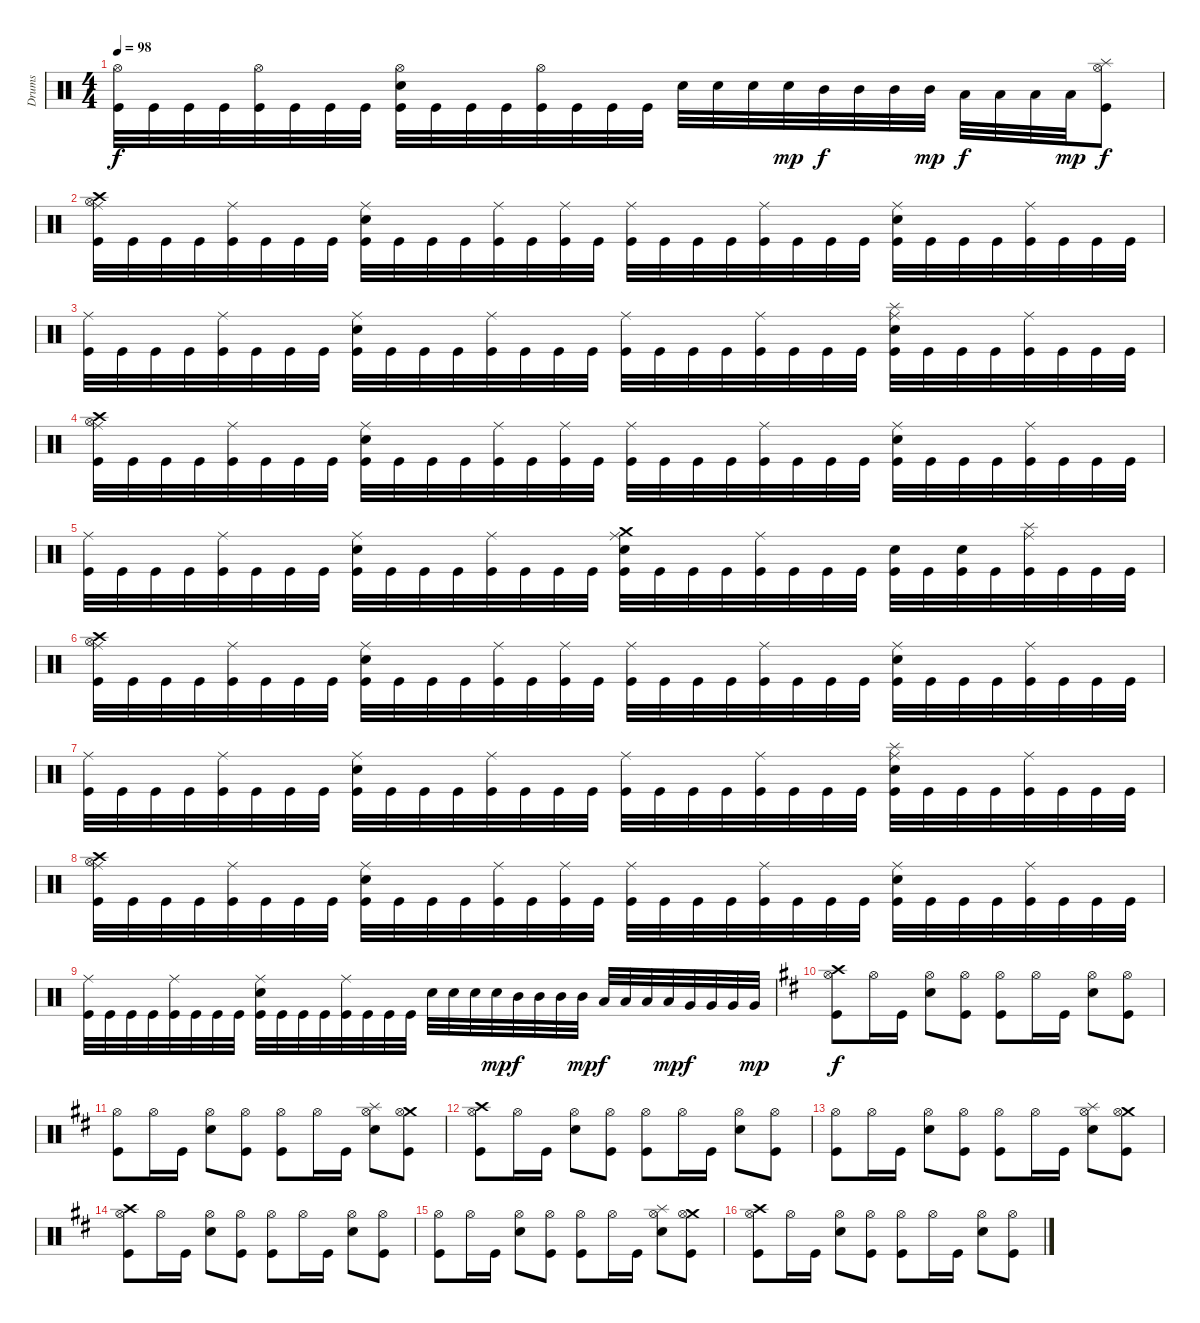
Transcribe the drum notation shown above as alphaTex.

\track ("Drums" "Drums") {instrument percussion}
\staff {score}
\articulation defaults
\ts (4 4)
\tempo 98
\clef neutral
\ks c
("Hi-Hat (open)" "Kick (hit)").32{dy f} "Kick (hit)".32 "Kick (hit)".32 "Kick (hit)".32 ("Hi-Hat (open)" "Kick (hit)").32 "Kick (hit)".32 "Kick (hit)".32 "Kick (hit)".32 ("Hi-Hat (open)" "Electric Snare (hit)" "Kick (hit)").32 "Kick (hit)".32 "Kick (hit)".32 "Kick (hit)".32 ("Hi-Hat (open)" "Kick (hit)").32 "Kick (hit)".32 "Kick (hit)".32 "Kick (hit)".32 "Electric Snare (hit)".32 "Electric Snare (hit)".32 "Electric Snare (hit)".32 "Electric Snare (hit)".32{dy mp} "Mid Tom (hit)".32{dy f} "Mid Tom (hit)".32 "Mid Tom (hit)".32 "Mid Tom (hit)".32{dy mp} "Low Tom (hit)".32{dy f} "Low Tom (hit)".32 "Low Tom (hit)".32 "Low Tom (hit)".32{dy mp} ("Splash (hit)" "Hi-Hat (open)" "Kick (hit)").8{dy f} |
("Crash high (hit)" "Hi-Hat (open)" "Ride (middle)" "Kick (hit)").32 "Kick (hit)".32 "Kick (hit)".32 "Kick (hit)".32 ("Ride (middle)" "Kick (hit)").32 "Kick (hit)".32 "Kick (hit)".32 "Kick (hit)".32 ("Ride (middle)" "Electric Snare (hit)" "Kick (hit)").32 "Kick (hit)".32 "Kick (hit)".32 "Kick (hit)".32 ("Ride (middle)" "Kick (hit)").32 "Kick (hit)".32 ("Ride (middle)" "Kick (hit)").32 "Kick (hit)".32 ("Ride (middle)" "Kick (hit)").32 "Kick (hit)".32 "Kick (hit)".32 "Kick (hit)".32 ("Ride (middle)" "Kick (hit)").32 "Kick (hit)".32 "Kick (hit)".32 "Kick (hit)".32 ("Ride (middle)" "Electric Snare (hit)" "Kick (hit)").32 "Kick (hit)".32 "Kick (hit)".32 "Kick (hit)".32 ("Ride (middle)" "Kick (hit)").32 "Kick (hit)".32 "Kick (hit)".32 "Kick (hit)".32 |
("Ride (middle)" "Kick (hit)").32 "Kick (hit)".32 "Kick (hit)".32 "Kick (hit)".32 ("Ride (middle)" "Kick (hit)").32 "Kick (hit)".32 "Kick (hit)".32 "Kick (hit)".32 ("Ride (middle)" "Electric Snare (hit)" "Kick (hit)").32 "Kick (hit)".32 "Kick (hit)".32 "Kick (hit)".32 ("Ride (middle)" "Kick (hit)").32 "Kick (hit)".32 "Kick (hit)".32 "Kick (hit)".32 ("Ride (middle)" "Kick (hit)").32 "Kick (hit)".32 "Kick (hit)".32 "Kick (hit)".32 ("Ride (middle)" "Kick (hit)").32 "Kick (hit)".32 "Kick (hit)".32 "Kick (hit)".32 ("Ride (middle)" "Splash (hit)" "Electric Snare (hit)" "Kick (hit)").32 "Kick (hit)".32 "Kick (hit)".32 "Kick (hit)".32 ("Ride (middle)" "Kick (hit)").32 "Kick (hit)".32 "Kick (hit)".32 "Kick (hit)".32 |
("Crash high (hit)" "Hi-Hat (open)" "Ride (middle)" "Kick (hit)").32 "Kick (hit)".32 "Kick (hit)".32 "Kick (hit)".32 ("Ride (middle)" "Kick (hit)").32 "Kick (hit)".32 "Kick (hit)".32 "Kick (hit)".32 ("Ride (middle)" "Electric Snare (hit)" "Kick (hit)").32 "Kick (hit)".32 "Kick (hit)".32 "Kick (hit)".32 ("Ride (middle)" "Kick (hit)").32 "Kick (hit)".32 ("Ride (middle)" "Kick (hit)").32 "Kick (hit)".32 ("Ride (middle)" "Kick (hit)").32 "Kick (hit)".32 "Kick (hit)".32 "Kick (hit)".32 ("Ride (middle)" "Kick (hit)").32 "Kick (hit)".32 "Kick (hit)".32 "Kick (hit)".32 ("Ride (middle)" "Electric Snare (hit)" "Kick (hit)").32 "Kick (hit)".32 "Kick (hit)".32 "Kick (hit)".32 ("Ride (middle)" "Kick (hit)").32 "Kick (hit)".32 "Kick (hit)".32 "Kick (hit)".32 |
("Ride (middle)" "Kick (hit)").32 "Kick (hit)".32 "Kick (hit)".32 "Kick (hit)".32 ("Ride (middle)" "Kick (hit)").32 "Kick (hit)".32 "Kick (hit)".32 "Kick (hit)".32 ("Ride (middle)" "Electric Snare (hit)" "Kick (hit)").32 "Kick (hit)".32 "Kick (hit)".32 "Kick (hit)".32 ("Ride (middle)" "Kick (hit)").32 "Kick (hit)".32 "Kick (hit)".32 "Kick (hit)".32 ("Crash medium (hit)" "Ride (middle)" "Electric Snare (hit)" "Kick (hit)").32 "Kick (hit)".32 "Kick (hit)".32 "Kick (hit)".32 ("Ride (middle)" "Kick (hit)").32 "Kick (hit)".32 "Kick (hit)".32 "Kick (hit)".32 ("Electric Snare (hit)" "Kick (hit)").32 "Kick (hit)".32 ("Electric Snare (hit)" "Kick (hit)").32 "Kick (hit)".32 ("Ride (middle)" "Splash (hit)" "Kick (hit)").32 "Kick (hit)".32 "Kick (hit)".32 "Kick (hit)".32 |
("Crash high (hit)" "Hi-Hat (open)" "Ride (middle)" "Kick (hit)").32 "Kick (hit)".32 "Kick (hit)".32 "Kick (hit)".32 ("Ride (middle)" "Kick (hit)").32 "Kick (hit)".32 "Kick (hit)".32 "Kick (hit)".32 ("Ride (middle)" "Electric Snare (hit)" "Kick (hit)").32 "Kick (hit)".32 "Kick (hit)".32 "Kick (hit)".32 ("Ride (middle)" "Kick (hit)").32 "Kick (hit)".32 ("Ride (middle)" "Kick (hit)").32 "Kick (hit)".32 ("Ride (middle)" "Kick (hit)").32 "Kick (hit)".32 "Kick (hit)".32 "Kick (hit)".32 ("Ride (middle)" "Kick (hit)").32 "Kick (hit)".32 "Kick (hit)".32 "Kick (hit)".32 ("Ride (middle)" "Electric Snare (hit)" "Kick (hit)").32 "Kick (hit)".32 "Kick (hit)".32 "Kick (hit)".32 ("Ride (middle)" "Kick (hit)").32 "Kick (hit)".32 "Kick (hit)".32 "Kick (hit)".32 |
("Ride (middle)" "Kick (hit)").32 "Kick (hit)".32 "Kick (hit)".32 "Kick (hit)".32 ("Ride (middle)" "Kick (hit)").32 "Kick (hit)".32 "Kick (hit)".32 "Kick (hit)".32 ("Ride (middle)" "Electric Snare (hit)" "Kick (hit)").32 "Kick (hit)".32 "Kick (hit)".32 "Kick (hit)".32 ("Ride (middle)" "Kick (hit)").32 "Kick (hit)".32 "Kick (hit)".32 "Kick (hit)".32 ("Ride (middle)" "Kick (hit)").32 "Kick (hit)".32 "Kick (hit)".32 "Kick (hit)".32 ("Ride (middle)" "Kick (hit)").32 "Kick (hit)".32 "Kick (hit)".32 "Kick (hit)".32 ("Ride (middle)" "Splash (hit)" "Electric Snare (hit)" "Kick (hit)").32 "Kick (hit)".32 "Kick (hit)".32 "Kick (hit)".32 ("Ride (middle)" "Kick (hit)").32 "Kick (hit)".32 "Kick (hit)".32 "Kick (hit)".32 |
("Crash high (hit)" "Hi-Hat (open)" "Ride (middle)" "Kick (hit)").32 "Kick (hit)".32 "Kick (hit)".32 "Kick (hit)".32 ("Ride (middle)" "Kick (hit)").32 "Kick (hit)".32 "Kick (hit)".32 "Kick (hit)".32 ("Ride (middle)" "Electric Snare (hit)" "Kick (hit)").32 "Kick (hit)".32 "Kick (hit)".32 "Kick (hit)".32 ("Ride (middle)" "Kick (hit)").32 "Kick (hit)".32 ("Ride (middle)" "Kick (hit)").32 "Kick (hit)".32 ("Ride (middle)" "Kick (hit)").32 "Kick (hit)".32 "Kick (hit)".32 "Kick (hit)".32 ("Ride (middle)" "Kick (hit)").32 "Kick (hit)".32 "Kick (hit)".32 "Kick (hit)".32 ("Ride (middle)" "Electric Snare (hit)" "Kick (hit)").32 "Kick (hit)".32 "Kick (hit)".32 "Kick (hit)".32 ("Ride (middle)" "Kick (hit)").32 "Kick (hit)".32 "Kick (hit)".32 "Kick (hit)".32 |
("Ride (middle)" "Kick (hit)").32 "Kick (hit)".32 "Kick (hit)".32 "Kick (hit)".32 ("Ride (middle)" "Kick (hit)").32 "Kick (hit)".32 "Kick (hit)".32 "Kick (hit)".32 ("Ride (middle)" "Electric Snare (hit)" "Kick (hit)").32 "Kick (hit)".32 "Kick (hit)".32 "Kick (hit)".32 ("Ride (middle)" "Kick (hit)").32 "Kick (hit)".32 "Kick (hit)".32 "Kick (hit)".32 "Electric Snare (hit)".32 "Electric Snare (hit)".32 "Electric Snare (hit)".32 "Electric Snare (hit)".32{dy mp} "Mid Tom (hit)".32{dy f} "Mid Tom (hit)".32 "Mid Tom (hit)".32 "Mid Tom (hit)".32{dy mp} "Low Tom (hit)".32{dy f} "Low Tom (hit)".32 "Low Tom (hit)".32 "Low Tom (hit)".32{dy mp} "Very Low Tom (hit)".32{dy f} "Very Low Tom (hit)".32 "Very Low Tom (hit)".32 "Very Low Tom (hit)".32{dy mp} |
\ks bminor
("Crash high (hit)" "Hi-Hat (open)" "Kick (hit)").8{dy f} "Hi-Hat (open)".16 "Kick (hit)".16 ("Hi-Hat (open)" "Electric Snare (hit)").8 ("Hi-Hat (open)" "Kick (hit)").8 ("Hi-Hat (open)" "Kick (hit)").8 "Hi-Hat (open)".16 "Kick (hit)".16 ("Hi-Hat (open)" "Electric Snare (hit)").8 ("Hi-Hat (open)" "Kick (hit)").8 |
("Hi-Hat (open)" "Kick (hit)").8 "Hi-Hat (open)".16 "Kick (hit)".16 ("Hi-Hat (open)" "Electric Snare (hit)").8 ("Hi-Hat (open)" "Kick (hit)").8 ("Hi-Hat (open)" "Kick (hit)").8 "Hi-Hat (open)".16 "Kick (hit)".16 ("Splash (hit)" "Hi-Hat (open)" "Electric Snare (hit)").8 ("Crash medium (hit)" "Hi-Hat (open)" "Kick (hit)").8 |
("Crash high (hit)" "Hi-Hat (open)" "Kick (hit)").8 "Hi-Hat (open)".16 "Kick (hit)".16 ("Hi-Hat (open)" "Electric Snare (hit)").8 ("Hi-Hat (open)" "Kick (hit)").8 ("Hi-Hat (open)" "Kick (hit)").8 "Hi-Hat (open)".16 "Kick (hit)".16 ("Hi-Hat (open)" "Electric Snare (hit)").8 ("Hi-Hat (open)" "Kick (hit)").8 |
("Hi-Hat (open)" "Kick (hit)").8 "Hi-Hat (open)".16 "Kick (hit)".16 ("Hi-Hat (open)" "Electric Snare (hit)").8 ("Hi-Hat (open)" "Kick (hit)").8 ("Hi-Hat (open)" "Kick (hit)").8 "Hi-Hat (open)".16 "Kick (hit)".16 ("Splash (hit)" "Hi-Hat (open)" "Electric Snare (hit)").8 ("Crash medium (hit)" "Hi-Hat (open)" "Kick (hit)").8 |
("Crash high (hit)" "Hi-Hat (open)" "Kick (hit)").8 "Hi-Hat (open)".16 "Kick (hit)".16 ("Hi-Hat (open)" "Electric Snare (hit)").8 ("Hi-Hat (open)" "Kick (hit)").8 ("Hi-Hat (open)" "Kick (hit)").8 "Hi-Hat (open)".16 "Kick (hit)".16 ("Hi-Hat (open)" "Electric Snare (hit)").8 ("Hi-Hat (open)" "Kick (hit)").8 |
("Hi-Hat (open)" "Kick (hit)").8 "Hi-Hat (open)".16 "Kick (hit)".16 ("Hi-Hat (open)" "Electric Snare (hit)").8 ("Hi-Hat (open)" "Kick (hit)").8 ("Hi-Hat (open)" "Kick (hit)").8 "Hi-Hat (open)".16 "Kick (hit)".16 ("Splash (hit)" "Hi-Hat (open)" "Electric Snare (hit)").8 ("Crash medium (hit)" "Hi-Hat (open)" "Kick (hit)").8 |
("Crash high (hit)" "Hi-Hat (open)" "Kick (hit)").8 "Hi-Hat (open)".16 "Kick (hit)".16 ("Hi-Hat (open)" "Electric Snare (hit)").8 ("Hi-Hat (open)" "Kick (hit)").8 ("Hi-Hat (open)" "Kick (hit)").8 "Hi-Hat (open)".16 "Kick (hit)".16 ("Hi-Hat (open)" "Electric Snare (hit)").8 ("Hi-Hat (open)" "Kick (hit)").8
